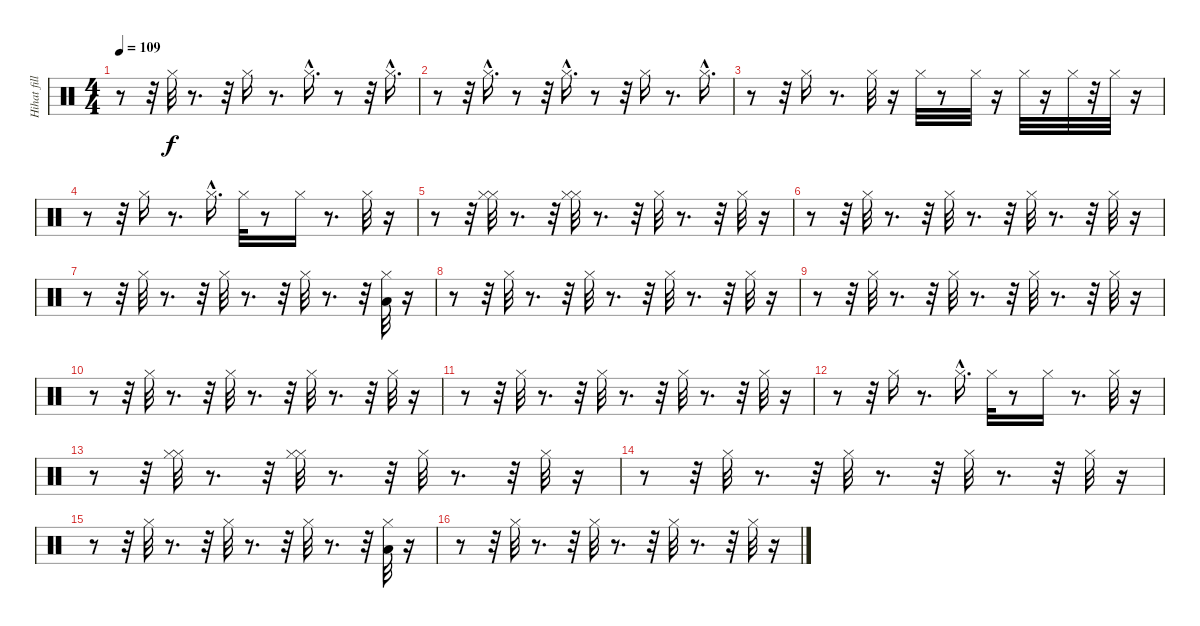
\track ("Hihat fills     " "Hihat fill") {instrument percussion}
\staff {score}
\articulation defaults
\ts (4 4)
\tempo 109
\clef neutral
\ks c
r.8{dy f} r.32 "Hi-Hat (closed)".32 r.8{d} r.32 "Hi-Hat (closed)".16 r.8{d} "Hi-Hat (closed)"{hac}.16{d} r.8 r.32 "Hi-Hat (closed)"{hac}.16{d} |
r.8 r.32 "Hi-Hat (closed)"{hac}.16{d} r.8 r.32 "Hi-Hat (closed)"{hac}.16{d} r.8 r.32 "Hi-Hat (closed)".16 r.8{d} "Hi-Hat (closed)"{hac}.16{d} |
r.8 r.32 "Hi-Hat (closed)".16 r.8{d} "Hi-Hat (closed)".32 r.16 "Hi-Hat (closed)".32 r.8 "Hi-Hat (closed)".32 r.16 "Hi-Hat (closed)".32 r.16 "Hi-Hat (closed)".32 r.32 "Hi-Hat (closed)".32 r.16 |
r.8 r.32 "Hi-Hat (closed)".16 r.8{d} "Hi-Hat (closed)"{hac}.16{d} "Hi-Hat (closed)".32 r.8 "Hi-Hat (closed)".16 r.8{d} "Hi-Hat (closed)".32 r.16 |
r.8 r.32 ("Hi-Hat (closed)" "Hi-Hat (closed)").32 r.8{d} r.32 ("Hi-Hat (closed)" "Hi-Hat (closed)").32 r.8{d} r.32 "Hi-Hat (closed)".32 r.8{d} r.32 "Hi-Hat (closed)".32 r.16 |
r.8 r.32 "Hi-Hat (closed)".32 r.8{d} r.32 "Hi-Hat (closed)".32 r.8{d} r.32 "Hi-Hat (closed)".32 r.8{d} r.32 "Hi-Hat (closed)".32 r.16 |
r.8 r.32 "Hi-Hat (closed)".32 r.8{d} r.32 "Hi-Hat (closed)".32 r.8{d} r.32 "Hi-Hat (closed)".32 r.8{d} r.32 ("Hi-Hat (closed)" "Low Floor Tom (hit)").32 r.16 |
r.8 r.32 "Hi-Hat (closed)".32 r.8{d} r.32 "Hi-Hat (closed)".32 r.8{d} r.32 "Hi-Hat (closed)".32 r.8{d} r.32 "Hi-Hat (closed)".32 r.16 |
r.8 r.32 "Hi-Hat (closed)".32 r.8{d} r.32 "Hi-Hat (closed)".32 r.8{d} r.32 "Hi-Hat (closed)".32 r.8{d} r.32 "Hi-Hat (closed)".32 r.16 |
r.8 r.32 "Hi-Hat (closed)".32 r.8{d} r.32 "Hi-Hat (closed)".32 r.8{d} r.32 "Hi-Hat (closed)".32 r.8{d} r.32 "Hi-Hat (closed)".32 r.16 |
r.8 r.32 "Hi-Hat (closed)".32 r.8{d} r.32 "Hi-Hat (closed)".32 r.8{d} r.32 "Hi-Hat (closed)".32 r.8{d} r.32 "Hi-Hat (closed)".32 r.16 |
r.8 r.32 "Hi-Hat (closed)".16 r.8{d} "Hi-Hat (closed)"{hac}.16{d} "Hi-Hat (closed)".32 r.8 "Hi-Hat (closed)".16 r.8{d} "Hi-Hat (closed)".32 r.16 |
r.8 r.32 ("Hi-Hat (closed)" "Hi-Hat (closed)").32 r.8{d} r.32 ("Hi-Hat (closed)" "Hi-Hat (closed)").32 r.8{d} r.32 "Hi-Hat (closed)".32 r.8{d} r.32 "Hi-Hat (closed)".32 r.16 |
r.8 r.32 "Hi-Hat (closed)".32 r.8{d} r.32 "Hi-Hat (closed)".32 r.8{d} r.32 "Hi-Hat (closed)".32 r.8{d} r.32 "Hi-Hat (closed)".32 r.16 |
r.8 r.32 "Hi-Hat (closed)".32 r.8{d} r.32 "Hi-Hat (closed)".32 r.8{d} r.32 "Hi-Hat (closed)".32 r.8{d} r.32 ("Hi-Hat (closed)" "Low Floor Tom (hit)").32 r.16 |
r.8 r.32 "Hi-Hat (closed)".32 r.8{d} r.32 "Hi-Hat (closed)".32 r.8{d} r.32 "Hi-Hat (closed)".32 r.8{d} r.32 "Hi-Hat (closed)".32 r.16
